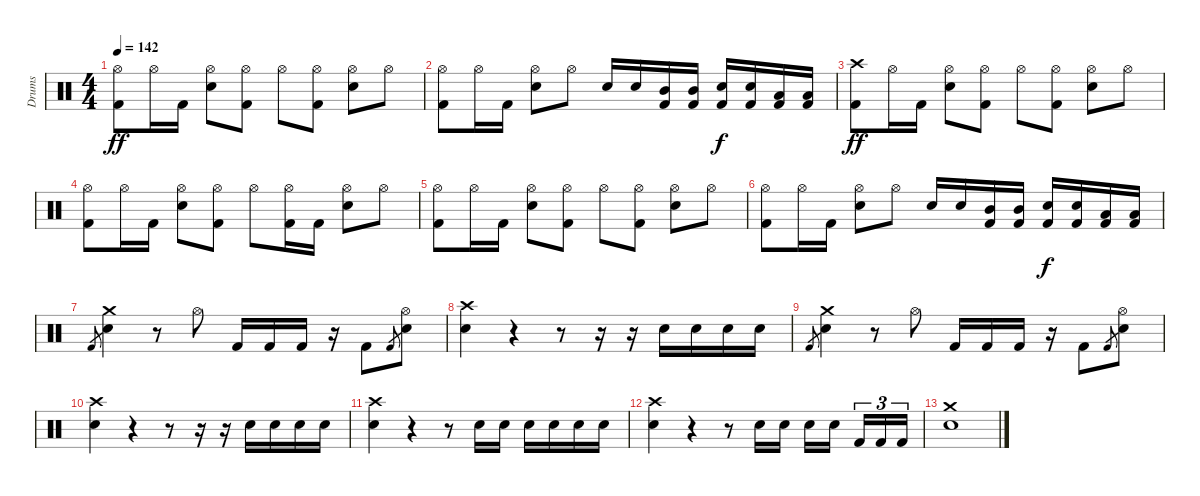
\track ("Drums" "Drums") {instrument percussion}
\staff {score}
\articulation defaults
\ts (4 4)
\tempo 142
\clef neutral
\ks c
("Kick (hit) 2" "Hi-Hat (open)").8{dy ff} "Hi-Hat (open)".16 "Kick (hit) 2".16 ("Hi-Hat (open)" "Electric Snare (hit)").8 ("Kick (hit) 2" "Hi-Hat (open)").8 "Hi-Hat (open)".8 ("Kick (hit) 2" "Hi-Hat (open)").8 ("Hi-Hat (open)" "Electric Snare (hit)").8 "Hi-Hat (open)".8 |
("Kick (hit) 2" "Hi-Hat (open)").8 "Hi-Hat (open)".16 "Kick (hit) 2".16 ("Hi-Hat (open)" "Electric Snare (hit)").8 "Hi-Hat (open)".8 "Electric Snare (hit)".16 "Electric Snare (hit)".16 ("Kick (hit) 2" "Mid Tom (hit)").16 ("Kick (hit) 2" "Mid Tom (hit)").16 ("Kick (hit) 2" "Electric Snare (hit)").16{dy f} ("Kick (hit) 2" "Electric Snare (hit)").16 ("Kick (hit) 2" "Low Tom (hit)").16 ("Kick (hit) 2" "Low Tom (hit)").16 |
("Kick (hit) 2" "Crash high (hit)").8{dy ff} "Hi-Hat (open)".16 "Kick (hit) 2".16 ("Hi-Hat (open)" "Electric Snare (hit)").8 ("Kick (hit) 2" "Hi-Hat (open)").8 "Hi-Hat (open)".8 ("Kick (hit) 2" "Hi-Hat (open)").8 ("Hi-Hat (open)" "Electric Snare (hit)").8 "Hi-Hat (open)".8 |
("Kick (hit) 2" "Hi-Hat (open)").8 "Hi-Hat (open)".16 "Kick (hit) 2".16 ("Hi-Hat (open)" "Electric Snare (hit)").8 ("Kick (hit) 2" "Hi-Hat (open)").8 "Hi-Hat (open)".8 ("Kick (hit) 2" "Hi-Hat (open)").16 "Kick (hit) 2".16 ("Hi-Hat (open)" "Electric Snare (hit)").8 "Hi-Hat (open)".8 |
("Kick (hit) 2" "Hi-Hat (open)").8 "Hi-Hat (open)".16 "Kick (hit) 2".16 ("Hi-Hat (open)" "Electric Snare (hit)").8 ("Kick (hit) 2" "Hi-Hat (open)").8 "Hi-Hat (open)".8 ("Kick (hit) 2" "Hi-Hat (open)").8 ("Hi-Hat (open)" "Electric Snare (hit)").8 "Hi-Hat (open)".8 |
("Kick (hit) 2" "Hi-Hat (open)").8 "Hi-Hat (open)".16 "Kick (hit) 2".16 ("Hi-Hat (open)" "Electric Snare (hit)").8 "Hi-Hat (open)".8 "Electric Snare (hit)".16 "Electric Snare (hit)".16 ("Kick (hit) 2" "Mid Tom (hit)").16 ("Kick (hit) 2" "Mid Tom (hit)").16 ("Kick (hit) 2" "Electric Snare (hit)").16{dy f} ("Kick (hit) 2" "Electric Snare (hit)").16 ("Kick (hit) 2" "Low Tom (hit)").16 ("Kick (hit) 2" "Low Tom (hit)").16 |
"Kick (hit) 2".8{gr} ("Crash medium (hit)" "Snare (hit) 2").4 r.8 "Hi-Hat (open)".8 "Kick (hit) 2".16 "Kick (hit) 2".16 "Kick (hit) 2".16 r.16 "Kick (hit) 2".8 "Kick (hit) 2".8{gr} ("Hi-Hat (open)" "Snare (hit) 2").8 |
("Crash high (hit)" "Electric Snare (hit)").4 r.4 r.8 r.16 r.16 "Electric Snare (hit)".16 "Electric Snare (hit)".16 "Electric Snare (hit)".16 "Electric Snare (hit)".16 |
"Kick (hit) 2".8{gr} ("Crash medium (hit)" "Snare (hit) 2").4 r.8 "Hi-Hat (open)".8 "Kick (hit) 2".16 "Kick (hit) 2".16 "Kick (hit) 2".16 r.16 "Kick (hit) 2".8 "Kick (hit) 2".8{gr} ("Hi-Hat (open)" "Snare (hit) 2").8 |
("Crash high (hit)" "Electric Snare (hit)").4 r.4 r.8 r.16 r.16 "Electric Snare (hit)".16 "Electric Snare (hit)".16 "Electric Snare (hit)".16 "Electric Snare (hit)".16 |
("Crash high (hit)" "Electric Snare (hit)").4 r.4 r.8 "Electric Snare (hit)".16 "Electric Snare (hit)".16 "Electric Snare (hit)".16 "Electric Snare (hit)".16 "Electric Snare (hit)".16 "Electric Snare (hit)".16 |
("Crash high (hit)" "Electric Snare (hit)").4 r.4 r.8 "Electric Snare (hit)".16 "Electric Snare (hit)".16 "Electric Snare (hit)".16 "Electric Snare (hit)".16 "Kick (hit) 2".16{tu (3 2)} "Kick (hit) 2".16{tu (3 2)} "Kick (hit) 2".16{tu (3 2)} |
("Crash medium (hit)" "Snare (hit) 2").1
